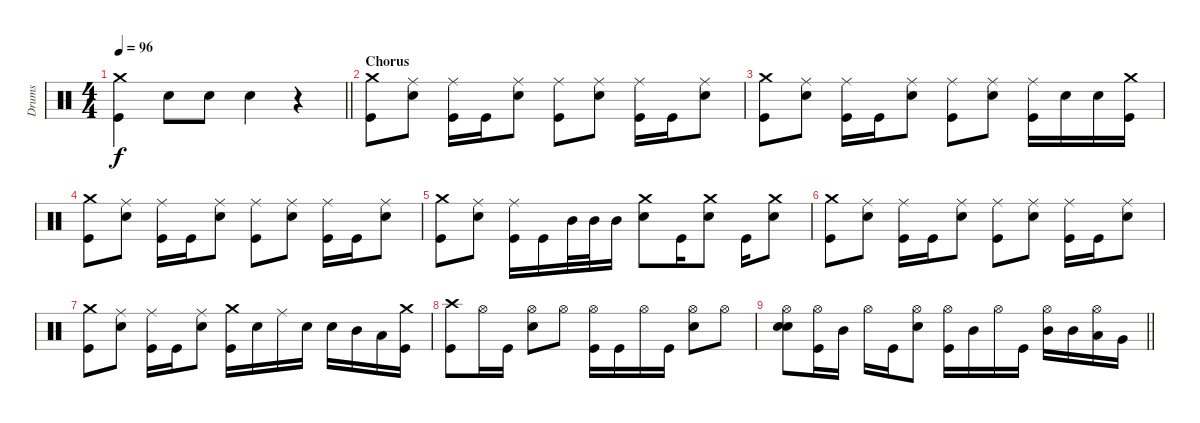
\track ("Drums" "Drums") {instrument percussion}
\staff {score}
\articulation defaults
\ts (4 4)
\tempo 96
\clef neutral
\barLineRight lightlight
\ks c
("Crash medium (hit)" "Kick (hit)").4{dy f} "Electric Snare (hit)".8 "Electric Snare (hit)".8 "Electric Snare (hit)".4 r.4 |
\section ("" "Chorus")
("Crash medium (hit)" "Kick (hit)").8 ("Ride (middle)" "Electric Snare (hit)").8 ("Ride (middle)" "Kick (hit)").16 "Kick (hit)".16 ("Ride (middle)" "Electric Snare (hit)").8 ("Ride (middle)" "Kick (hit)").8 ("Ride (middle)" "Electric Snare (hit)").8 ("Ride (middle)" "Kick (hit)").16 "Kick (hit)".16 ("Ride (middle)" "Electric Snare (hit)").8 |
("Crash medium (hit)" "Kick (hit)").8 ("Ride (middle)" "Electric Snare (hit)").8 ("Ride (middle)" "Kick (hit)").16 "Kick (hit)".16 ("Ride (middle)" "Electric Snare (hit)").8 ("Ride (middle)" "Kick (hit)").8 ("Ride (middle)" "Electric Snare (hit)").8 ("Ride (middle)" "Kick (hit)").16 "Electric Snare (hit)".16 "Electric Snare (hit)".16 ("Crash medium (hit)" "Kick (hit)").16 |
("Crash medium (hit)" "Kick (hit)").8 ("Ride (middle)" "Electric Snare (hit)").8 ("Ride (middle)" "Kick (hit)").16 "Kick (hit)".16 ("Ride (middle)" "Electric Snare (hit)").8 ("Ride (middle)" "Kick (hit)").8 ("Ride (middle)" "Electric Snare (hit)").8 ("Ride (middle)" "Kick (hit)").16 "Kick (hit)".16 ("Ride (middle)" "Electric Snare (hit)").8 |
("Crash medium (hit)" "Kick (hit)").8 ("Ride (middle)" "Electric Snare (hit)").8 ("Ride (middle)" "Kick (hit)").16 "Kick (hit)".16 "Mid Tom (hit)".32 "Mid Tom (hit)".32 "Mid Tom (hit)".16 ("Crash medium (hit)" "Electric Snare (hit)").8 "Kick (hit)".16 ("Crash medium (hit)" "Electric Snare (hit)").8 "Kick (hit)".16 ("Crash medium (hit)" "Electric Snare (hit)").8 |
("Crash medium (hit)" "Kick (hit)").8 ("Ride (middle)" "Electric Snare (hit)").8 ("Ride (middle)" "Kick (hit)").16 "Kick (hit)".16 ("Ride (middle)" "Electric Snare (hit)").8 ("Ride (middle)" "Kick (hit)").8 ("Ride (middle)" "Electric Snare (hit)").8 ("Ride (middle)" "Kick (hit)").16 "Kick (hit)".16 ("Ride (middle)" "Electric Snare (hit)").8 |
("Crash medium (hit)" "Kick (hit)").8 ("Ride (middle)" "Electric Snare (hit)").8 ("Ride (middle)" "Kick (hit)").16 "Kick (hit)".16 ("Ride (middle)" "Electric Snare (hit)").8 ("Crash medium (hit)" "Kick (hit)").16 "Electric Snare (hit)".16 "Ride (middle)".16 "Electric Snare (hit)".16 "Electric Snare (hit)".16 "Mid Tom (hit)".16 "Low Tom (hit)".16 ("Crash medium (hit)" "Kick (hit)").16 |
("Crash high (hit)" "Kick (hit)").8 "Hi-Hat (open)".16 "Kick (hit)".16 ("Hi-Hat (open)" "Electric Snare (hit)").8 "Hi-Hat (open)".8 ("Hi-Hat (open)" "Kick (hit)").16 "Kick (hit)".16 "Hi-Hat (open)".16 "Kick (hit)".16 ("Hi-Hat (open)" "Electric Snare (hit)").8 "Hi-Hat (open)".8 |
\barLineRight lightlight
("Hi-Hat (open)" "Electric Snare (hit)" "Electric Snare (hit)").8{bd 60} ("Hi-Hat (open)" "Kick (hit)").16 "Mid Tom (hit)".16 "Hi-Hat (open)".16 "Kick (hit)".16 ("Hi-Hat (open)" "Electric Snare (hit)").8 ("Hi-Hat (open)" "Kick (hit)").16 "Mid Tom (hit)".16 "Hi-Hat (open)".16 "Kick (hit)".16 ("Hi-Hat (open)" "Mid Tom (hit)").16 "Mid Tom (hit)".16 ("Hi-Hat (open)" "Low Tom (hit)").16 "Very Low Tom (hit)".16
